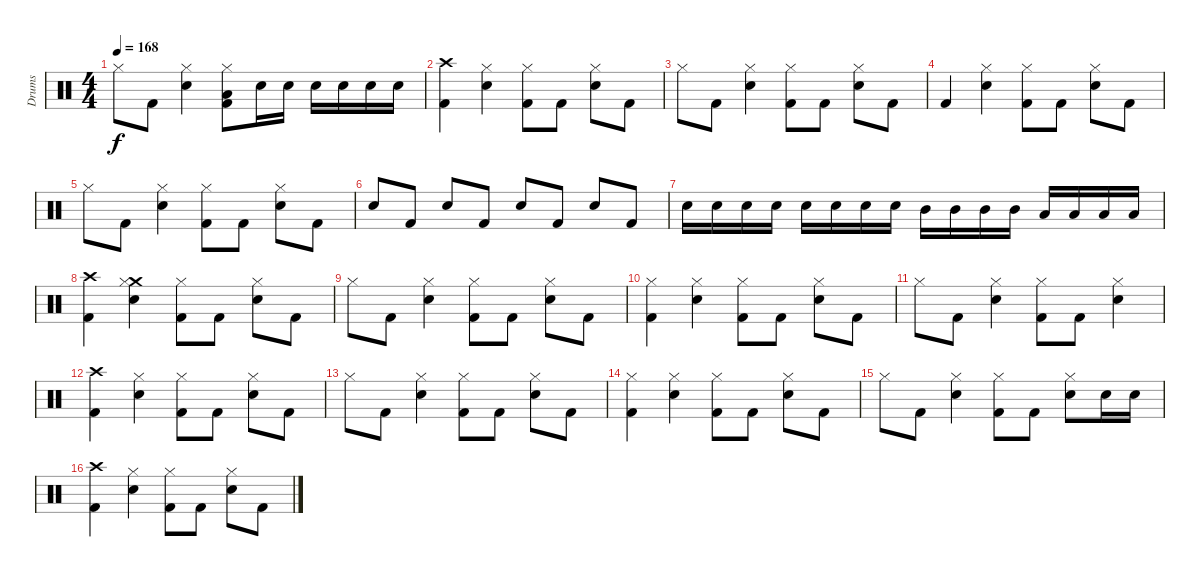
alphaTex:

\track ("Drums" "Drums") {instrument percussion}
\staff {score}
\articulation defaults
\ts (4 4)
\tempo 168
\clef neutral
\ks c "Hi-Hat (closed)".8{dy f} "Kick (hit) 2".8
("Hi-Hat (closed)" "Electric Snare (hit)").4 ("Hi-Hat (closed)" "Low Tom (hit)" "Kick (hit) 2").8 "Electric Snare (hit)".16 "Electric Snare (hit)".16 "Electric Snare (hit)".16 "Electric Snare (hit)".16 "Electric Snare (hit)".16 "Electric Snare (hit)".16 |
("Crash high (hit)" "Kick (hit) 2").4 ("Hi-Hat (closed)" "Electric Snare (hit)").4 ("Hi-Hat (closed)" "Kick (hit) 2").8 "Kick (hit) 2".8 ("Hi-Hat (closed)" "Electric Snare (hit)").8 "Kick (hit) 2".8 |
"Hi-Hat (closed)".8 "Kick (hit) 2".8 ("Hi-Hat (closed)" "Electric Snare (hit)").4 ("Hi-Hat (closed)" "Kick (hit) 2").8 "Kick (hit) 2".8 ("Hi-Hat (closed)" "Electric Snare (hit)").8 "Kick (hit) 2".8 |
"Kick (hit) 2".4 ("Hi-Hat (closed)" "Electric Snare (hit)").4 ("Hi-Hat (closed)" "Kick (hit) 2").8 "Kick (hit) 2".8 ("Hi-Hat (closed)" "Electric Snare (hit)").8 "Kick (hit) 2".8 |
"Hi-Hat (closed)".8 "Kick (hit) 2".8 ("Hi-Hat (closed)" "Electric Snare (hit)").4 ("Hi-Hat (closed)" "Kick (hit) 2").8 "Kick (hit) 2".8 ("Hi-Hat (closed)" "Electric Snare (hit)").8 "Kick (hit) 2".8 |
"Electric Snare (hit)".8 "Kick (hit) 2".8 "Electric Snare (hit)".8 "Kick (hit) 2".8 "Electric Snare (hit)".8 "Kick (hit) 2".8 "Electric Snare (hit)".8 "Kick (hit) 2".8 |
"Electric Snare (hit)".16 "Electric Snare (hit)".16 "Electric Snare (hit)".16 "Electric Snare (hit)".16 "Electric Snare (hit)".16 "Electric Snare (hit)".16 "Electric Snare (hit)".16 "Electric Snare (hit)".16 "Mid Tom (hit)".16 "Mid Tom (hit)".16 "Mid Tom (hit)".16 "Mid Tom (hit)".16 "Low Tom (hit)".16 "Low Tom (hit)".16 "Low Tom (hit)".16 "Low Tom (hit)".16 |
("Crash high (hit)" "Kick (hit) 2").4 ("Crash medium (hit)" "Hi-Hat (closed)" "Electric Snare (hit)").4 ("Hi-Hat (closed)" "Kick (hit) 2").8 "Kick (hit) 2".8 ("Hi-Hat (closed)" "Electric Snare (hit)").8 "Kick (hit) 2".8 |
"Hi-Hat (closed)".8 "Kick (hit) 2".8 ("Hi-Hat (closed)" "Electric Snare (hit)").4 ("Hi-Hat (closed)" "Kick (hit) 2").8 "Kick (hit) 2".8 ("Hi-Hat (closed)" "Electric Snare (hit)").8 "Kick (hit) 2".8 |
("Hi-Hat (closed)" "Kick (hit) 2").4 ("Hi-Hat (closed)" "Electric Snare (hit)").4 ("Hi-Hat (closed)" "Kick (hit) 2").8 "Kick (hit) 2".8 ("Hi-Hat (closed)" "Electric Snare (hit)").8 "Kick (hit) 2".8 |
"Hi-Hat (closed)".8 "Kick (hit) 2".8 ("Hi-Hat (closed)" "Electric Snare (hit)").4 ("Hi-Hat (closed)" "Kick (hit) 2").8 "Kick (hit) 2".8 ("Hi-Hat (closed)" "Electric Snare (hit)").4 |
("Crash high (hit)" "Kick (hit) 2").4 ("Hi-Hat (closed)" "Electric Snare (hit)").4 ("Hi-Hat (closed)" "Kick (hit) 2").8 "Kick (hit) 2".8 ("Hi-Hat (closed)" "Electric Snare (hit)").8 "Kick (hit) 2".8 |
"Hi-Hat (closed)".8 "Kick (hit) 2".8 ("Hi-Hat (closed)" "Electric Snare (hit)").4 ("Hi-Hat (closed)" "Kick (hit) 2").8 "Kick (hit) 2".8 ("Hi-Hat (closed)" "Electric Snare (hit)").8 "Kick (hit) 2".8 |
("Hi-Hat (closed)" "Kick (hit) 2").4 ("Hi-Hat (closed)" "Electric Snare (hit)").4 ("Hi-Hat (closed)" "Kick (hit) 2").8 "Kick (hit) 2".8 ("Hi-Hat (closed)" "Electric Snare (hit)").8 "Kick (hit) 2".8 |
"Hi-Hat (closed)".8 "Kick (hit) 2".8 ("Hi-Hat (closed)" "Electric Snare (hit)").4 ("Hi-Hat (closed)" "Kick (hit) 2").8 "Kick (hit) 2".8 ("Hi-Hat (closed)" "Electric Snare (hit)").8 "Electric Snare (hit)".16 "Electric Snare (hit)".16 |
("Crash high (hit)" "Kick (hit) 2").4 ("Hi-Hat (closed)" "Electric Snare (hit)").4 ("Hi-Hat (closed)" "Kick (hit) 2").8 "Kick (hit) 2".8 ("Hi-Hat (closed)" "Electric Snare (hit)").8 "Kick (hit) 2".8
